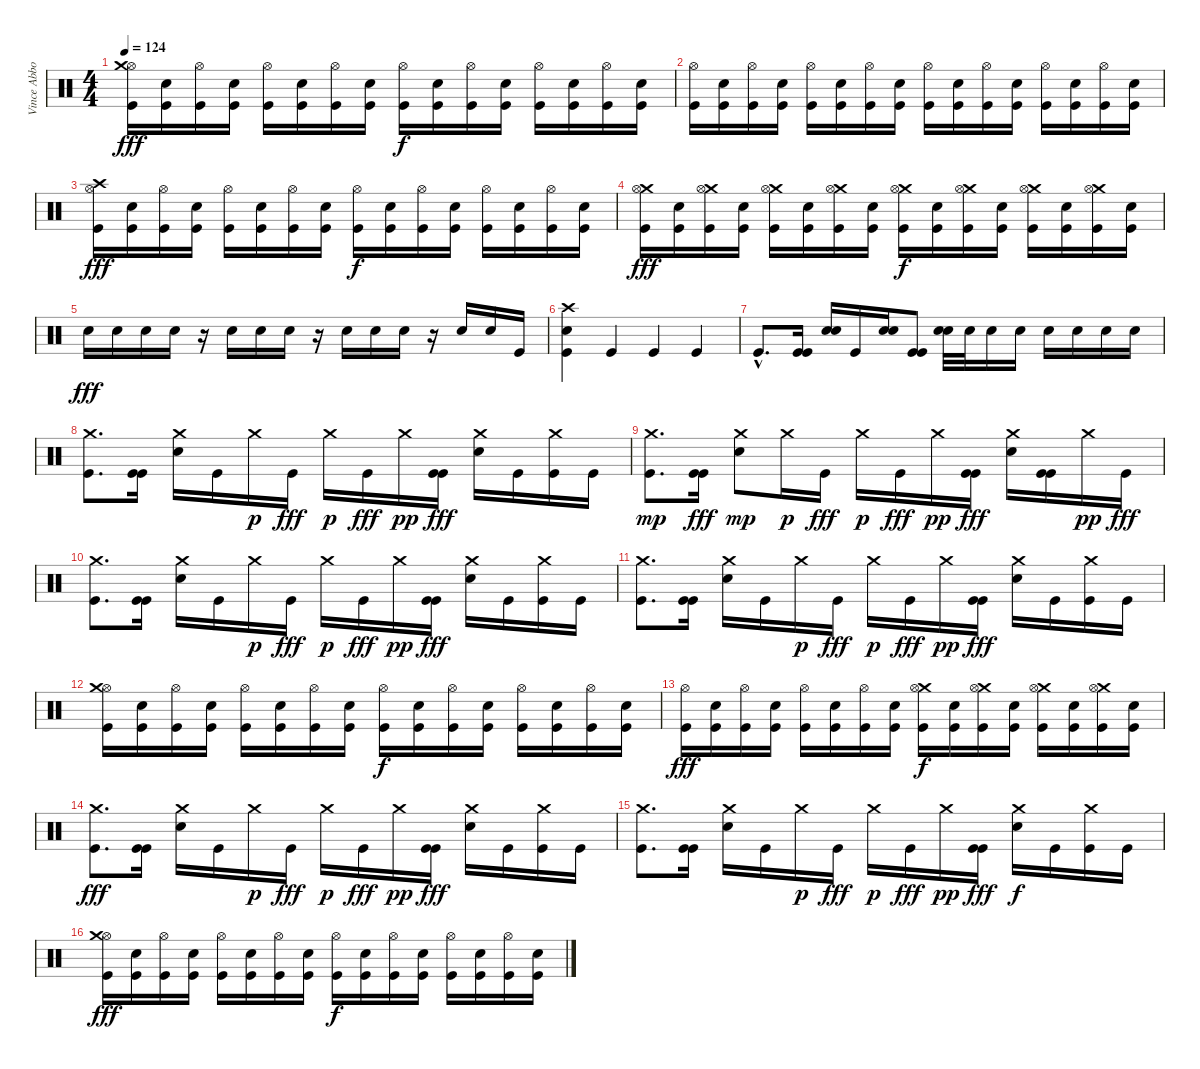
\track ("Vince Abbott (Drums)" "Vince Abbo") {instrument percussion}
\staff {score}
\articulation defaults
\ts (4 4)
\tempo 124
\clef neutral
\ks c
("Hi-Hat (open)" "Kick (hit)" "Crash medium (hit)").16{dy fff} ("Electric Snare (hit)" "Kick (hit)").16 ("Hi-Hat (open)" "Kick (hit)").16 ("Electric Snare (hit)" "Kick (hit)").16 ("Hi-Hat (open)" "Kick (hit)").16 ("Electric Snare (hit)" "Kick (hit)").16 ("Hi-Hat (open)" "Kick (hit)").16 ("Electric Snare (hit)" "Kick (hit)").16 ("Hi-Hat (open)" "Kick (hit)").16{dy f} ("Electric Snare (hit)" "Kick (hit)").16 ("Hi-Hat (open)" "Kick (hit)").16 ("Electric Snare (hit)" "Kick (hit)").16 ("Hi-Hat (open)" "Kick (hit)").16 ("Electric Snare (hit)" "Kick (hit)").16 ("Hi-Hat (open)" "Kick (hit)").16 ("Electric Snare (hit)" "Kick (hit)").16 |
("Hi-Hat (open)" "Kick (hit)").16 ("Electric Snare (hit)" "Kick (hit)").16 ("Hi-Hat (open)" "Kick (hit)").16 ("Electric Snare (hit)" "Kick (hit)").16 ("Hi-Hat (open)" "Kick (hit)").16 ("Electric Snare (hit)" "Kick (hit)").16 ("Hi-Hat (open)" "Kick (hit)").16 ("Electric Snare (hit)" "Kick (hit)").16 ("Hi-Hat (open)" "Kick (hit)").16 ("Electric Snare (hit)" "Kick (hit)").16 ("Hi-Hat (open)" "Kick (hit)").16 ("Electric Snare (hit)" "Kick (hit)").16 ("Hi-Hat (open)" "Kick (hit)").16 ("Electric Snare (hit)" "Kick (hit)").16 ("Hi-Hat (open)" "Kick (hit)").16 ("Electric Snare (hit)" "Kick (hit)").16 |
("Crash high (hit)" "Hi-Hat (open)" "Kick (hit)").16{dy fff} ("Electric Snare (hit)" "Kick (hit)").16 ("Hi-Hat (open)" "Kick (hit)").16 ("Electric Snare (hit)" "Kick (hit)").16 ("Hi-Hat (open)" "Kick (hit)").16 ("Electric Snare (hit)" "Kick (hit)").16 ("Hi-Hat (open)" "Kick (hit)").16 ("Electric Snare (hit)" "Kick (hit)").16 ("Hi-Hat (open)" "Kick (hit)").16{dy f} ("Electric Snare (hit)" "Kick (hit)").16 ("Hi-Hat (open)" "Kick (hit)").16 ("Electric Snare (hit)" "Kick (hit)").16 ("Hi-Hat (open)" "Kick (hit)").16 ("Electric Snare (hit)" "Kick (hit)").16 ("Hi-Hat (open)" "Kick (hit)").16 ("Electric Snare (hit)" "Kick (hit)").16 |
("Crash medium (hit)" "Hi-Hat (open)" "Kick (hit)").16{dy fff} ("Electric Snare (hit)" "Kick (hit)").16 ("Crash medium (hit)" "Hi-Hat (open)" "Kick (hit)").16 ("Electric Snare (hit)" "Kick (hit)").16 ("Crash medium (hit)" "Hi-Hat (open)" "Kick (hit)").16 ("Electric Snare (hit)" "Kick (hit)").16 ("Crash medium (hit)" "Hi-Hat (open)" "Kick (hit)").16 ("Electric Snare (hit)" "Kick (hit)").16 ("Crash medium (hit)" "Hi-Hat (open)" "Kick (hit)").16{dy f} ("Electric Snare (hit)" "Kick (hit)").16 ("Crash medium (hit)" "Hi-Hat (open)" "Kick (hit)").16 ("Electric Snare (hit)" "Kick (hit)").16 ("Crash medium (hit)" "Hi-Hat (open)" "Kick (hit)").16 ("Electric Snare (hit)" "Kick (hit)").16 ("Crash medium (hit)" "Hi-Hat (open)" "Kick (hit)").16 ("Electric Snare (hit)" "Kick (hit)").16 |
"Electric Snare (hit)".16{dy fff} "Electric Snare (hit)".16 "Electric Snare (hit)".16 "Electric Snare (hit)".16 r.16 "Electric Snare (hit)".16 "Electric Snare (hit)".16 "Electric Snare (hit)".16 r.16 "Electric Snare (hit)".16 "Electric Snare (hit)".16 "Electric Snare (hit)".16 r.16 "Electric Snare (hit)".16 "Electric Snare (hit)".16 "Kick (hit)".16 |
("Electric Snare (hit)" "Crash high (hit)" "Kick (hit)").4 "Kick (hit)".4 "Kick (hit)".4 "Kick (hit)".4 |
"Kick (hit)"{hac}.8{d} ("Kick (hit)" "Kick (hit)").16 ("Electric Snare (hit)" "Electric Snare (hit)").16 "Kick (hit)".16 ("Electric Snare (hit)" "Electric Snare (hit)").16 ("Kick (hit)" "Kick (hit)").8 ("Electric Snare (hit)" "Electric Snare (hit)").32 "Electric Snare (hit)".32 "Electric Snare (hit)".16 "Electric Snare (hit)".16 "Electric Snare (hit)".16 "Electric Snare (hit)".16 "Electric Snare (hit)".16 "Electric Snare (hit)".16 |
("Crash medium (hit)" "Kick (hit)").8{d} ("Kick (hit)" "Kick (hit)").16 ("Crash medium (hit)" "Electric Snare (hit)").16 "Kick (hit)".16 "Crash medium (hit)".16{dy p} "Kick (hit)".16{dy fff} "Crash medium (hit)".16{dy p} "Kick (hit)".16{dy fff} "Crash medium (hit)".16{dy pp} ("Kick (hit)" "Kick (hit)").16{dy fff} ("Crash medium (hit)" "Electric Snare (hit)").16 "Kick (hit)".16 ("Crash medium (hit)" "Kick (hit)").16 "Kick (hit)".16 |
("Kick (hit)" "Crash medium (hit)").8{d dy mp} ("Kick (hit)" "Kick (hit)").16{dy fff} ("Electric Snare (hit)" "Crash medium (hit)").8{dy mp} "Crash medium (hit)".16{dy p} "Kick (hit)".16{dy fff} "Crash medium (hit)".16{dy p} "Kick (hit)".16{dy fff} "Crash medium (hit)".16{dy pp} ("Kick (hit)" "Kick (hit)").16{dy fff} ("Crash medium (hit)" "Electric Snare (hit)").16 ("Kick (hit)" "Kick (hit)").16 "Crash medium (hit)".16{dy pp} "Kick (hit)".16{dy fff} |
("Crash medium (hit)" "Kick (hit)").8{d} ("Kick (hit)" "Kick (hit)").16 ("Crash medium (hit)" "Electric Snare (hit)").16 "Kick (hit)".16 "Crash medium (hit)".16{dy p} "Kick (hit)".16{dy fff} "Crash medium (hit)".16{dy p} "Kick (hit)".16{dy fff} "Crash medium (hit)".16{dy pp} ("Kick (hit)" "Kick (hit)").16{dy fff} ("Crash medium (hit)" "Electric Snare (hit)").16 "Kick (hit)".16 ("Crash medium (hit)" "Kick (hit)").16 "Kick (hit)".16 |
("Crash medium (hit)" "Kick (hit)").8{d} ("Kick (hit)" "Kick (hit)").16 ("Crash medium (hit)" "Electric Snare (hit)").16 "Kick (hit)".16 "Crash medium (hit)".16{dy p} "Kick (hit)".16{dy fff} "Crash medium (hit)".16{dy p} "Kick (hit)".16{dy fff} "Crash medium (hit)".16{dy pp} ("Kick (hit)" "Kick (hit)").16{dy fff} ("Crash medium (hit)" "Electric Snare (hit)").16 "Kick (hit)".16 ("Crash medium (hit)" "Kick (hit)").16 "Kick (hit)".16 |
("Hi-Hat (open)" "Kick (hit)" "Crash medium (hit)").16 ("Electric Snare (hit)" "Kick (hit)").16 ("Hi-Hat (open)" "Kick (hit)").16 ("Electric Snare (hit)" "Kick (hit)").16 ("Hi-Hat (open)" "Kick (hit)").16 ("Electric Snare (hit)" "Kick (hit)").16 ("Hi-Hat (open)" "Kick (hit)").16 ("Electric Snare (hit)" "Kick (hit)").16 ("Hi-Hat (open)" "Kick (hit)").16{dy f} ("Electric Snare (hit)" "Kick (hit)").16 ("Hi-Hat (open)" "Kick (hit)").16 ("Electric Snare (hit)" "Kick (hit)").16 ("Hi-Hat (open)" "Kick (hit)").16 ("Electric Snare (hit)" "Kick (hit)").16 ("Hi-Hat (open)" "Kick (hit)").16 ("Electric Snare (hit)" "Kick (hit)").16 |
("Hi-Hat (open)" "Kick (hit)").16{dy fff} ("Electric Snare (hit)" "Kick (hit)").16 ("Hi-Hat (open)" "Kick (hit)").16 ("Electric Snare (hit)" "Kick (hit)").16 ("Hi-Hat (open)" "Kick (hit)").16 ("Electric Snare (hit)" "Kick (hit)").16 ("Hi-Hat (open)" "Kick (hit)").16 ("Electric Snare (hit)" "Kick (hit)").16 ("Crash medium (hit)" "Hi-Hat (open)" "Kick (hit)").16{dy f} ("Electric Snare (hit)" "Kick (hit)").16 ("Crash medium (hit)" "Hi-Hat (open)" "Kick (hit)").16 ("Electric Snare (hit)" "Kick (hit)").16 ("Crash medium (hit)" "Hi-Hat (open)" "Kick (hit)").16 ("Electric Snare (hit)" "Kick (hit)").16 ("Crash medium (hit)" "Hi-Hat (open)" "Kick (hit)").16 ("Electric Snare (hit)" "Kick (hit)").16 |
("Crash medium (hit)" "Kick (hit)").8{d dy fff} ("Kick (hit)" "Kick (hit)").16 ("Crash medium (hit)" "Electric Snare (hit)").16 "Kick (hit)".16 "Crash medium (hit)".16{dy p} "Kick (hit)".16{dy fff} "Crash medium (hit)".16{dy p} "Kick (hit)".16{dy fff} "Crash medium (hit)".16{dy pp} ("Kick (hit)" "Kick (hit)").16{dy fff} ("Crash medium (hit)" "Electric Snare (hit)").16 "Kick (hit)".16 ("Crash medium (hit)" "Kick (hit)").16 "Kick (hit)".16 |
("Crash medium (hit)" "Kick (hit)").8{d} ("Kick (hit)" "Kick (hit)").16 ("Crash medium (hit)" "Electric Snare (hit)").16 "Kick (hit)".16 "Crash medium (hit)".16{dy p} "Kick (hit)".16{dy fff} "Crash medium (hit)".16{dy p} "Kick (hit)".16{dy fff} "Crash medium (hit)".16{dy pp} ("Kick (hit)" "Kick (hit)").16{dy fff} ("Crash medium (hit)" "Electric Snare (hit)").16{dy f} "Kick (hit)".16 ("Crash medium (hit)" "Kick (hit)").16 "Kick (hit)".16 |
("Hi-Hat (open)" "Kick (hit)" "Crash medium (hit)").16{dy fff} ("Electric Snare (hit)" "Kick (hit)").16 ("Hi-Hat (open)" "Kick (hit)").16 ("Electric Snare (hit)" "Kick (hit)").16 ("Hi-Hat (open)" "Kick (hit)").16 ("Electric Snare (hit)" "Kick (hit)").16 ("Hi-Hat (open)" "Kick (hit)").16 ("Electric Snare (hit)" "Kick (hit)").16 ("Hi-Hat (open)" "Kick (hit)").16{dy f} ("Electric Snare (hit)" "Kick (hit)").16 ("Hi-Hat (open)" "Kick (hit)").16 ("Electric Snare (hit)" "Kick (hit)").16 ("Hi-Hat (open)" "Kick (hit)").16 ("Electric Snare (hit)" "Kick (hit)").16 ("Hi-Hat (open)" "Kick (hit)").16 ("Electric Snare (hit)" "Kick (hit)").16
